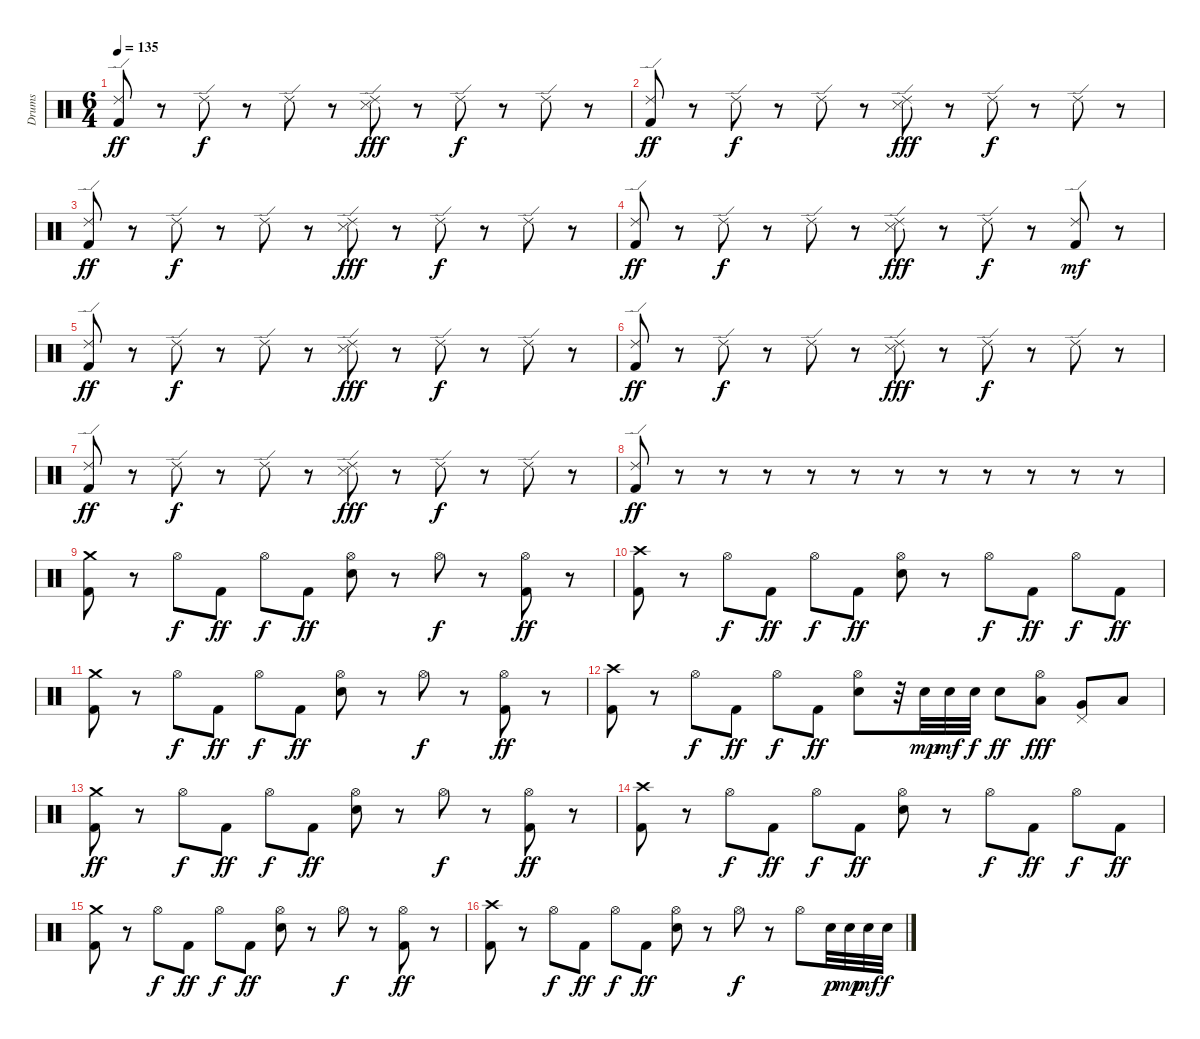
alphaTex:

\track ("Drums" "Drums") {instrument percussion}
\staff {score}
\articulation defaults
\ts (6 4)
\tempo 135
\clef neutral
\ks c
("Ride (edge) 2" "Kick (hit) 2").8{dy ff} r.8 "Ride (edge) 2".8{dy f} r.8 "Ride (edge) 2".8 r.8 ("Ride (edge) 2" "Snare (side stick) 3").8{dy fff} r.8 "Ride (edge) 2".8{dy f} r.8 "Ride (edge) 2".8 r.8 |
("Ride (edge) 2" "Kick (hit) 2").8{dy ff} r.8 "Ride (edge) 2".8{dy f} r.8 "Ride (edge) 2".8 r.8 ("Ride (edge) 2" "Snare (side stick) 3").8{dy fff} r.8 "Ride (edge) 2".8{dy f} r.8 "Ride (edge) 2".8 r.8 |
("Ride (edge) 2" "Kick (hit) 2").8{dy ff} r.8 "Ride (edge) 2".8{dy f} r.8 "Ride (edge) 2".8 r.8 ("Ride (edge) 2" "Snare (side stick) 3").8{dy fff} r.8 "Ride (edge) 2".8{dy f} r.8 "Ride (edge) 2".8 r.8 |
("Ride (edge) 2" "Kick (hit) 2").8{dy ff} r.8 "Ride (edge) 2".8{dy f} r.8 "Ride (edge) 2".8 r.8 ("Ride (edge) 2" "Snare (side stick) 3").8{dy fff} r.8 "Ride (edge) 2".8{dy f} r.8 ("Ride (edge) 2" "Kick (hit) 2").8{dy mf} r.8 |
("Ride (edge) 2" "Kick (hit) 2").8{dy ff} r.8 "Ride (edge) 2".8{dy f} r.8 "Ride (edge) 2".8 r.8 ("Ride (edge) 2" "Snare (side stick) 3").8{dy fff} r.8 "Ride (edge) 2".8{dy f} r.8 "Ride (edge) 2".8 r.8 |
("Ride (edge) 2" "Kick (hit) 2").8{dy ff} r.8 "Ride (edge) 2".8{dy f} r.8 "Ride (edge) 2".8 r.8 ("Ride (edge) 2" "Snare (side stick) 3").8{dy fff} r.8 "Ride (edge) 2".8{dy f} r.8 "Ride (edge) 2".8 r.8 |
("Ride (edge) 2" "Kick (hit) 2").8{dy ff} r.8 "Ride (edge) 2".8{dy f} r.8 "Ride (edge) 2".8 r.8 ("Ride (edge) 2" "Snare (side stick) 3").8{dy fff} r.8 "Ride (edge) 2".8{dy f} r.8 "Ride (edge) 2".8 r.8 |
("Ride (edge) 2" "Kick (hit) 2").8{dy ff} r.8 r.8 r.8 r.8 r.8 r.8 r.8 r.8 r.8 r.8 r.8 |
("Crash medium (hit)" "Kick (hit) 2").8{volume 16} r.8 "Hi-Hat (open)".8{dy f} "Kick (hit) 2".8{dy ff} "Hi-Hat (open)".8{dy f} "Kick (hit) 2".8{dy ff} ("Hi-Hat (open)" "Electric Snare (hit)").8 r.8 "Hi-Hat (open)".8{dy f} r.8 ("Hi-Hat (open)" "Kick (hit) 2").8{dy ff} r.8 |
("Crash high (hit)" "Kick (hit) 2").8 r.8 "Hi-Hat (open)".8{dy f} "Kick (hit) 2".8{dy ff} "Hi-Hat (open)".8{dy f} "Kick (hit) 2".8{dy ff} ("Hi-Hat (open)" "Electric Snare (hit)").8 r.8 "Hi-Hat (open)".8{dy f} "Kick (hit) 2".8{dy ff} "Hi-Hat (open)".8{dy f} "Kick (hit) 2".8{dy ff} |
("Crash medium (hit)" "Kick (hit) 2").8 r.8 "Hi-Hat (open)".8{dy f} "Kick (hit) 2".8{dy ff} "Hi-Hat (open)".8{dy f} "Kick (hit) 2".8{dy ff} ("Hi-Hat (open)" "Electric Snare (hit)").8 r.8 "Hi-Hat (open)".8{dy f} r.8 ("Hi-Hat (open)" "Kick (hit) 2").8{dy ff} r.8 |
("Crash high (hit)" "Kick (hit) 2").8 r.8 "Hi-Hat (open)".8{dy f} "Kick (hit) 2".8{dy ff} "Hi-Hat (open)".8{dy f} "Kick (hit) 2".8{dy ff} ("Hi-Hat (open)" "Electric Snare (hit)").8 r.32 "Electric Snare (hit)".32{dy mp} "Electric Snare (hit)".32{dy mf} "Electric Snare (hit)".32{dy f} "Electric Snare (hit)".8{dy ff} ("Hi-Hat (open)" "Low Tom (hit)").8{dy fff} ("Pedal Hi-Hat (hit)" "Very Low Tom (hit)").8 "Low Floor Tom (hit)".8 |
("Crash medium (hit)" "Kick (hit) 2").8{dy ff volume 16} r.8 "Hi-Hat (open)".8{dy f} "Kick (hit) 2".8{dy ff} "Hi-Hat (open)".8{dy f} "Kick (hit) 2".8{dy ff} ("Hi-Hat (open)" "Electric Snare (hit)").8 r.8 "Hi-Hat (open)".8{dy f} r.8 ("Hi-Hat (open)" "Kick (hit) 2").8{dy ff} r.8 |
("Crash high (hit)" "Kick (hit) 2").8 r.8 "Hi-Hat (open)".8{dy f} "Kick (hit) 2".8{dy ff} "Hi-Hat (open)".8{dy f} "Kick (hit) 2".8{dy ff} ("Hi-Hat (open)" "Electric Snare (hit)").8 r.8 "Hi-Hat (open)".8{dy f} "Kick (hit) 2".8{dy ff} "Hi-Hat (open)".8{dy f} "Kick (hit) 2".8{dy ff} |
("Crash medium (hit)" "Kick (hit) 2").8 r.8 "Hi-Hat (open)".8{dy f} "Kick (hit) 2".8{dy ff} "Hi-Hat (open)".8{dy f} "Kick (hit) 2".8{dy ff} ("Hi-Hat (open)" "Electric Snare (hit)").8 r.8 "Hi-Hat (open)".8{dy f} r.8 ("Hi-Hat (open)" "Kick (hit) 2").8{dy ff} r.8 |
("Crash high (hit)" "Kick (hit) 2").8 r.8 "Hi-Hat (open)".8{dy f} "Kick (hit) 2".8{dy ff} "Hi-Hat (open)".8{dy f} "Kick (hit) 2".8{dy ff} ("Hi-Hat (open)" "Electric Snare (hit)").8 r.8 "Hi-Hat (open)".8{dy f} r.8 "Hi-Hat (open)".8 "Electric Snare (hit)".32{dy p} "Electric Snare (hit)".32{dy mp} "Electric Snare (hit)".32{dy mf} "Electric Snare (hit)".32{dy f}
